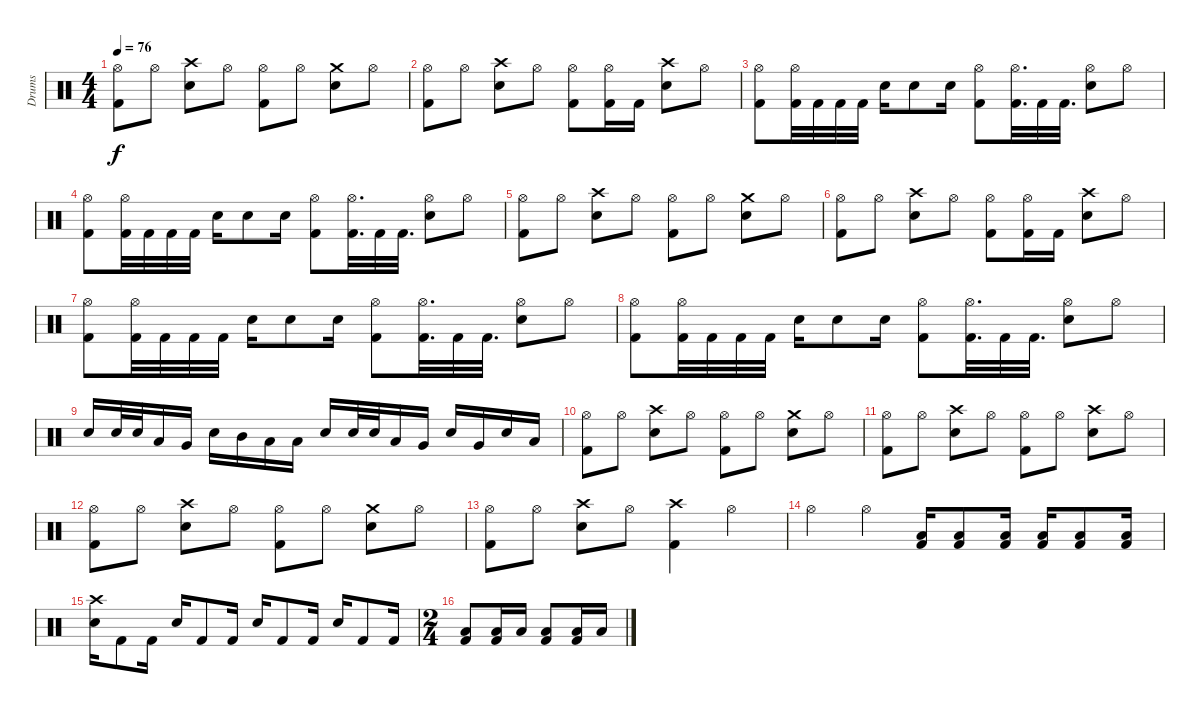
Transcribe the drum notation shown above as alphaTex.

\track ("Drums" "Drums") {instrument percussion}
\staff {score}
\articulation defaults
\ts (4 4)
\tempo 76
\clef neutral
\ks c
("Kick (hit) 2" "Hi-Hat (open)").8{dy f} "Hi-Hat (open)".8 ("Crash high (hit)" "Snare (hit) 2").8 "Hi-Hat (open)".8 ("Kick (hit) 2" "Hi-Hat (open)").8 "Hi-Hat (open)".8 ("Crash medium (hit)" "Snare (hit) 2").8 "Hi-Hat (open)".8 |
("Kick (hit) 2" "Hi-Hat (open)").8 "Hi-Hat (open)".8 ("Snare (hit) 2" "Crash high (hit)").8 "Hi-Hat (open)".8 ("Kick (hit) 2" "Hi-Hat (open)").8 ("Kick (hit) 2" "Hi-Hat (open)").16 "Kick (hit) 2".16 ("Crash high (hit)" "Snare (hit) 2").8 "Hi-Hat (open)".8 |
("Kick (hit) 2" "Hi-Hat (open)").8 ("Hi-Hat (open)" "Kick (hit) 2").32 "Kick (hit) 2".32 "Kick (hit) 2".32 "Kick (hit) 2".32 "Snare (hit) 2".16 "Snare (hit) 2".8 "Snare (hit) 2".16 ("Hi-Hat (open)" "Kick (hit) 2").8 ("Kick (hit) 2" "Hi-Hat (open)").32{d} "Kick (hit) 2".32 "Kick (hit) 2".32{d} ("Snare (hit) 2" "Hi-Hat (open)").8 "Hi-Hat (open)".8 |
("Kick (hit) 2" "Hi-Hat (open)").8 ("Hi-Hat (open)" "Kick (hit) 2").32 "Kick (hit) 2".32 "Kick (hit) 2".32 "Kick (hit) 2".32 "Snare (hit) 2".16 "Snare (hit) 2".8 "Snare (hit) 2".16 ("Hi-Hat (open)" "Kick (hit) 2").8 ("Kick (hit) 2" "Hi-Hat (open)").32{d} "Kick (hit) 2".32 "Kick (hit) 2".32{d} ("Snare (hit) 2" "Hi-Hat (open)").8 "Hi-Hat (open)".8 |
("Kick (hit) 2" "Hi-Hat (open)").8 "Hi-Hat (open)".8 ("Crash high (hit)" "Snare (hit) 2").8 "Hi-Hat (open)".8 ("Kick (hit) 2" "Hi-Hat (open)").8 "Hi-Hat (open)".8 ("Crash medium (hit)" "Snare (hit) 2").8 "Hi-Hat (open)".8 |
("Kick (hit) 2" "Hi-Hat (open)").8 "Hi-Hat (open)".8 ("Snare (hit) 2" "Crash high (hit)").8 "Hi-Hat (open)".8 ("Kick (hit) 2" "Hi-Hat (open)").8 ("Kick (hit) 2" "Hi-Hat (open)").16 "Kick (hit) 2".16 ("Crash high (hit)" "Snare (hit) 2").8 "Hi-Hat (open)".8 |
("Kick (hit) 2" "Hi-Hat (open)").8 ("Hi-Hat (open)" "Kick (hit) 2").32 "Kick (hit) 2".32 "Kick (hit) 2".32 "Kick (hit) 2".32 "Snare (hit) 2".16 "Snare (hit) 2".8 "Snare (hit) 2".16 ("Hi-Hat (open)" "Kick (hit) 2").8 ("Kick (hit) 2" "Hi-Hat (open)").32{d} "Kick (hit) 2".32 "Kick (hit) 2".32{d} ("Snare (hit) 2" "Hi-Hat (open)").8 "Hi-Hat (open)".8 |
("Kick (hit) 2" "Hi-Hat (open)").8 ("Hi-Hat (open)" "Kick (hit) 2").32 "Kick (hit) 2".32 "Kick (hit) 2".32 "Kick (hit) 2".32 "Snare (hit) 2".16 "Snare (hit) 2".8 "Snare (hit) 2".16 ("Hi-Hat (open)" "Kick (hit) 2").8 ("Kick (hit) 2" "Hi-Hat (open)").32{d} "Kick (hit) 2".32 "Kick (hit) 2".32{d} ("Snare (hit) 2" "Hi-Hat (open)").8 "Hi-Hat (open)".8 |
"Snare (hit) 2".16 "Snare (hit) 2".32 "Snare (hit) 2".32 "Low Tom (hit)".16 "Very Low Tom (hit)".16 "Snare (hit) 2".16 "Mid Tom (hit)".16 "Low Tom (hit)".16 "Low Floor Tom (hit)".16 "Snare (hit) 2".16 "Snare (hit) 2".32 "Snare (hit) 2".32 "Low Tom (hit)".16 "Very Low Tom (hit)".16 "Snare (hit) 2".16 "Very Low Tom (hit)".16 "Snare (hit) 2".16 "Low Floor Tom (hit)".16 |
("Kick (hit) 2" "Hi-Hat (open)").8 "Hi-Hat (open)".8 ("Crash high (hit)" "Snare (hit) 2").8 "Hi-Hat (open)".8 ("Kick (hit) 2" "Hi-Hat (open)").8 "Hi-Hat (open)".8 ("Crash medium (hit)" "Snare (hit) 2").8 "Hi-Hat (open)".8 |
("Kick (hit) 2" "Hi-Hat (open)").8 "Hi-Hat (open)".8 ("Crash high (hit)" "Snare (hit) 2").8 "Hi-Hat (open)".8 ("Kick (hit) 2" "Hi-Hat (open)").8 "Hi-Hat (open)".8 ("Crash high (hit)" "Snare (hit) 2").8 "Hi-Hat (open)".8 |
("Kick (hit) 2" "Hi-Hat (open)").8 "Hi-Hat (open)".8 ("Crash high (hit)" "Snare (hit) 2").8 "Hi-Hat (open)".8 ("Kick (hit) 2" "Hi-Hat (open)").8 "Hi-Hat (open)".8 ("Crash medium (hit)" "Snare (hit) 2").8 "Hi-Hat (open)".8 |
("Kick (hit) 2" "Hi-Hat (open)").8 "Hi-Hat (open)".8 ("Crash high (hit)" "Snare (hit) 2").8 "Hi-Hat (open)".8 ("Crash high (hit)" "Kick (hit) 2").4 "Hi-Hat (open)".4 |
"Hi-Hat (open)".4 "Hi-Hat (open)".4 ("Kick (hit) 2" "Low Floor Tom (hit)").16 ("Kick (hit) 2" "Low Floor Tom (hit)").8 ("Kick (hit) 2" "Low Floor Tom (hit)").16 ("Low Floor Tom (hit)" "Kick (hit) 2").16 ("Kick (hit) 2" "Low Floor Tom (hit)").8 ("Kick (hit) 2" "Low Floor Tom (hit)").16 |
("Snare (hit) 2" "Crash high (hit)").16 "Kick (hit) 2".8 "Kick (hit) 2".16 "Snare (hit) 2".16 "Kick (hit) 2".8 "Kick (hit) 2".16 "Snare (hit) 2".16 "Kick (hit) 2".8 "Kick (hit) 2".16 "Snare (hit) 2".16 "Kick (hit) 2".8 "Kick (hit) 2".16 |
\ts (2 4)
("Kick (hit) 2" "Low Floor Tom (hit)").8 ("Kick (hit) 2" "Low Floor Tom (hit)").16 "Low Floor Tom (hit)".16 ("Kick (hit) 2" "Low Floor Tom (hit)").8 ("Kick (hit) 2" "Low Floor Tom (hit)").16 "Low Floor Tom (hit)".16
